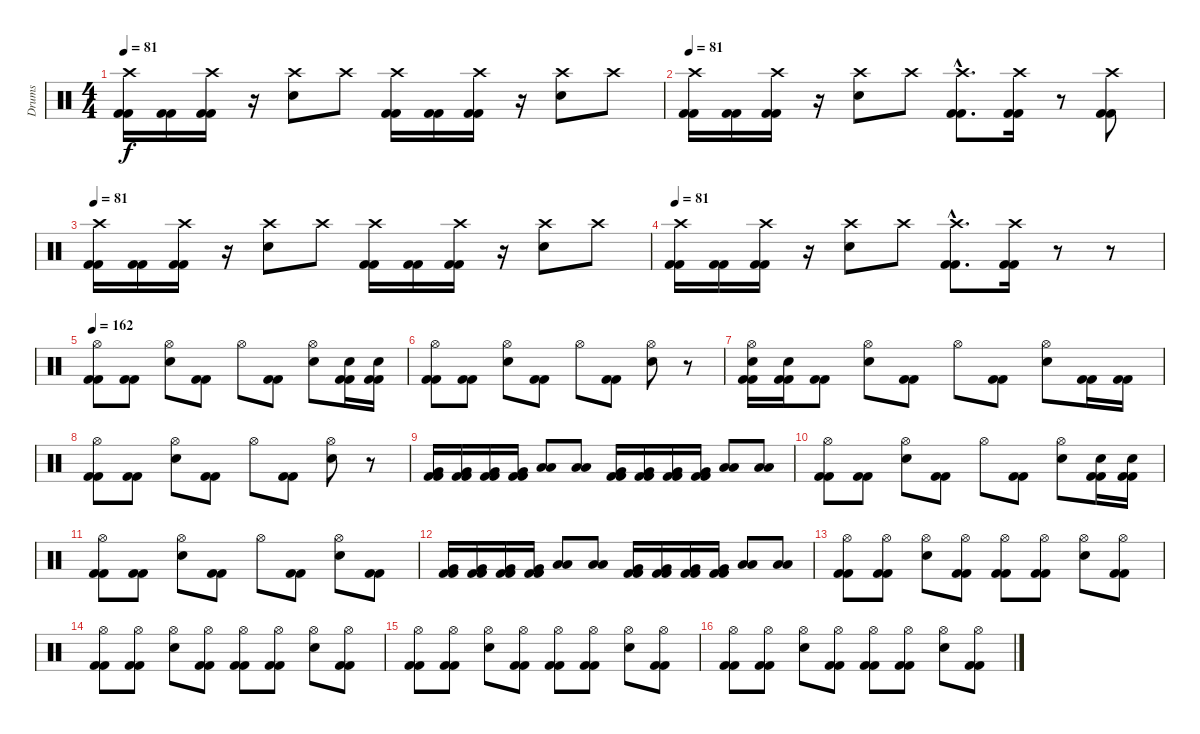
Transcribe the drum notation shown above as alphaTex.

\track ("Drums" "Drums") {instrument percussion}
\staff {score}
\articulation defaults
\ts (4 4)
\tempo 81
\clef neutral
\ks c
("Crash high (hit)" "Kick (hit) 2" "Kick (hit) 2").16{dy f} ("Kick (hit) 2" "Kick (hit) 2").16 ("Crash high (hit)" "Kick (hit) 2" "Kick (hit) 2").16 r.16 ("Crash high (hit)" "Electric Snare (hit)").8 "Crash high (hit)".8 ("Crash high (hit)" "Kick (hit) 2" "Kick (hit) 2").16 ("Kick (hit) 2" "Kick (hit) 2").16 ("Crash high (hit)" "Kick (hit) 2" "Kick (hit) 2").16 r.16 ("Crash high (hit)" "Electric Snare (hit)").8 "Crash high (hit)".8 |
\tempo 81
("Crash high (hit)" "Kick (hit) 2" "Kick (hit) 2").16 ("Kick (hit) 2" "Kick (hit) 2").16 ("Crash high (hit)" "Kick (hit) 2" "Kick (hit) 2").16 r.16 ("Crash high (hit)" "Electric Snare (hit)").8 "Crash high (hit)".8 ("Crash high (hit)"{hac} "Kick (hit) 2"{hac} "Kick (hit) 2"{hac}).8{d} ("Crash high (hit)" "Kick (hit) 2" "Kick (hit) 2").16 r.8 ("Crash high (hit)" "Kick (hit) 2" "Kick (hit) 2").8 |
\tempo 81
("Crash high (hit)" "Kick (hit) 2" "Kick (hit) 2").16 ("Kick (hit) 2" "Kick (hit) 2").16 ("Crash high (hit)" "Kick (hit) 2" "Kick (hit) 2").16 r.16 ("Crash high (hit)" "Electric Snare (hit)").8 "Crash high (hit)".8 ("Crash high (hit)" "Kick (hit) 2" "Kick (hit) 2").16 ("Kick (hit) 2" "Kick (hit) 2").16 ("Crash high (hit)" "Kick (hit) 2" "Kick (hit) 2").16 r.16 ("Crash high (hit)" "Electric Snare (hit)").8 "Crash high (hit)".8 |
\tempo 81
("Crash high (hit)" "Kick (hit) 2" "Kick (hit) 2").16 ("Kick (hit) 2" "Kick (hit) 2").16 ("Crash high (hit)" "Kick (hit) 2" "Kick (hit) 2").16 r.16 ("Crash high (hit)" "Electric Snare (hit)").8 "Crash high (hit)".8 ("Crash high (hit)"{hac} "Kick (hit) 2"{hac} "Kick (hit) 2"{hac}).8{d} ("Crash high (hit)" "Kick (hit) 2" "Kick (hit) 2").16 r.8 r.8 |
\tempo 162
("Hi-Hat (open)" "Kick (hit) 2" "Kick (hit) 2").8 ("Kick (hit) 2" "Kick (hit) 2").8 ("Hi-Hat (open)" "Electric Snare (hit)").8 ("Kick (hit) 2" "Kick (hit) 2").8 "Hi-Hat (open)".8 ("Kick (hit) 2" "Kick (hit) 2").8 ("Hi-Hat (open)" "Electric Snare (hit)").8 ("Electric Snare (hit)" "Kick (hit) 2" "Kick (hit) 2").16 ("Electric Snare (hit)" "Kick (hit) 2" "Kick (hit) 2").16 |
("Hi-Hat (open)" "Kick (hit) 2" "Kick (hit) 2").8 ("Kick (hit) 2" "Kick (hit) 2").8 ("Hi-Hat (open)" "Electric Snare (hit)").8 ("Kick (hit) 2" "Kick (hit) 2").8 "Hi-Hat (open)".8 ("Kick (hit) 2" "Kick (hit) 2").8 ("Hi-Hat (open)" "Electric Snare (hit)").8 r.8 |
("Hi-Hat (open)" "Electric Snare (hit)" "Kick (hit) 2" "Kick (hit) 2").16 ("Electric Snare (hit)" "Kick (hit) 2" "Kick (hit) 2").16 ("Kick (hit) 2" "Kick (hit) 2").8 ("Hi-Hat (open)" "Electric Snare (hit)").8 ("Kick (hit) 2" "Kick (hit) 2").8 "Hi-Hat (open)".8 ("Kick (hit) 2" "Kick (hit) 2").8 ("Hi-Hat (open)" "Electric Snare (hit)").8 ("Kick (hit) 2" "Kick (hit) 2").16 ("Kick (hit) 2" "Kick (hit) 2").16 |
("Hi-Hat (open)" "Kick (hit) 2" "Kick (hit) 2").8 ("Kick (hit) 2" "Kick (hit) 2").8 ("Hi-Hat (open)" "Electric Snare (hit)").8 ("Kick (hit) 2" "Kick (hit) 2").8 "Hi-Hat (open)".8 ("Kick (hit) 2" "Kick (hit) 2").8 ("Hi-Hat (open)" "Electric Snare (hit)").8 r.8 |
("Very Low Tom (hit)" "Kick (hit) 2" "Kick (hit) 2").16 ("Very Low Tom (hit)" "Kick (hit) 2" "Kick (hit) 2").16 ("Very Low Tom (hit)" "Kick (hit) 2" "Kick (hit) 2").16 ("Very Low Tom (hit)" "Kick (hit) 2" "Kick (hit) 2").16 ("Low Floor Tom (hit)" "Low Floor Tom (hit)").8 ("Low Floor Tom (hit)" "Low Floor Tom (hit)").8 ("Very Low Tom (hit)" "Kick (hit) 2" "Kick (hit) 2").16 ("Very Low Tom (hit)" "Kick (hit) 2" "Kick (hit) 2").16 ("Very Low Tom (hit)" "Kick (hit) 2" "Kick (hit) 2").16 ("Very Low Tom (hit)" "Kick (hit) 2" "Kick (hit) 2").16 ("Low Floor Tom (hit)" "Low Floor Tom (hit)").8 ("Low Floor Tom (hit)" "Low Floor Tom (hit)").8 |
("Hi-Hat (open)" "Kick (hit) 2" "Kick (hit) 2").8 ("Kick (hit) 2" "Kick (hit) 2").8 ("Hi-Hat (open)" "Electric Snare (hit)").8 ("Kick (hit) 2" "Kick (hit) 2").8 "Hi-Hat (open)".8 ("Kick (hit) 2" "Kick (hit) 2").8 ("Hi-Hat (open)" "Electric Snare (hit)").8 ("Electric Snare (hit)" "Kick (hit) 2" "Kick (hit) 2").16 ("Electric Snare (hit)" "Kick (hit) 2" "Kick (hit) 2").16 |
("Hi-Hat (open)" "Kick (hit) 2" "Kick (hit) 2").8 ("Kick (hit) 2" "Kick (hit) 2").8 ("Hi-Hat (open)" "Electric Snare (hit)").8 ("Kick (hit) 2" "Kick (hit) 2").8 "Hi-Hat (open)".8 ("Kick (hit) 2" "Kick (hit) 2").8 ("Hi-Hat (open)" "Electric Snare (hit)").8 ("Kick (hit) 2" "Kick (hit) 2").8 |
("Very Low Tom (hit)" "Kick (hit) 2" "Kick (hit) 2").16 ("Very Low Tom (hit)" "Kick (hit) 2" "Kick (hit) 2").16 ("Very Low Tom (hit)" "Kick (hit) 2" "Kick (hit) 2").16 ("Very Low Tom (hit)" "Kick (hit) 2" "Kick (hit) 2").16 ("Low Floor Tom (hit)" "Low Floor Tom (hit)").8 ("Low Floor Tom (hit)" "Low Floor Tom (hit)").8 ("Very Low Tom (hit)" "Kick (hit) 2" "Kick (hit) 2").16 ("Very Low Tom (hit)" "Kick (hit) 2" "Kick (hit) 2").16 ("Very Low Tom (hit)" "Kick (hit) 2" "Kick (hit) 2").16 ("Very Low Tom (hit)" "Kick (hit) 2" "Kick (hit) 2").16 ("Low Floor Tom (hit)" "Low Floor Tom (hit)").8 ("Low Floor Tom (hit)" "Low Floor Tom (hit)").8 |
("Hi-Hat (open)" "Kick (hit) 2" "Kick (hit) 2").8 ("Hi-Hat (open)" "Kick (hit) 2" "Kick (hit) 2").8 ("Hi-Hat (open)" "Electric Snare (hit)").8 ("Hi-Hat (open)" "Kick (hit) 2" "Kick (hit) 2").8 ("Hi-Hat (open)" "Kick (hit) 2" "Kick (hit) 2").8 ("Hi-Hat (open)" "Kick (hit) 2" "Kick (hit) 2").8 ("Hi-Hat (open)" "Electric Snare (hit)").8 ("Hi-Hat (open)" "Kick (hit) 2" "Kick (hit) 2").8 |
("Hi-Hat (open)" "Kick (hit) 2" "Kick (hit) 2").8 ("Hi-Hat (open)" "Kick (hit) 2" "Kick (hit) 2").8 ("Hi-Hat (open)" "Electric Snare (hit)").8 ("Hi-Hat (open)" "Kick (hit) 2" "Kick (hit) 2").8 ("Hi-Hat (open)" "Kick (hit) 2" "Kick (hit) 2").8 ("Hi-Hat (open)" "Kick (hit) 2" "Kick (hit) 2").8 ("Hi-Hat (open)" "Electric Snare (hit)").8 ("Hi-Hat (open)" "Kick (hit) 2" "Kick (hit) 2").8 |
("Hi-Hat (open)" "Kick (hit) 2" "Kick (hit) 2").8 ("Hi-Hat (open)" "Kick (hit) 2" "Kick (hit) 2").8 ("Hi-Hat (open)" "Electric Snare (hit)").8 ("Hi-Hat (open)" "Kick (hit) 2" "Kick (hit) 2").8 ("Hi-Hat (open)" "Kick (hit) 2" "Kick (hit) 2").8 ("Hi-Hat (open)" "Kick (hit) 2" "Kick (hit) 2").8 ("Hi-Hat (open)" "Electric Snare (hit)").8 ("Hi-Hat (open)" "Kick (hit) 2" "Kick (hit) 2").8 |
("Hi-Hat (open)" "Kick (hit) 2" "Kick (hit) 2").8 ("Hi-Hat (open)" "Kick (hit) 2" "Kick (hit) 2").8 ("Hi-Hat (open)" "Electric Snare (hit)").8 ("Hi-Hat (open)" "Kick (hit) 2" "Kick (hit) 2").8 ("Hi-Hat (open)" "Kick (hit) 2" "Kick (hit) 2").8 ("Hi-Hat (open)" "Kick (hit) 2" "Kick (hit) 2").8 ("Hi-Hat (open)" "Electric Snare (hit)").8 ("Hi-Hat (open)" "Kick (hit) 2" "Kick (hit) 2").8
